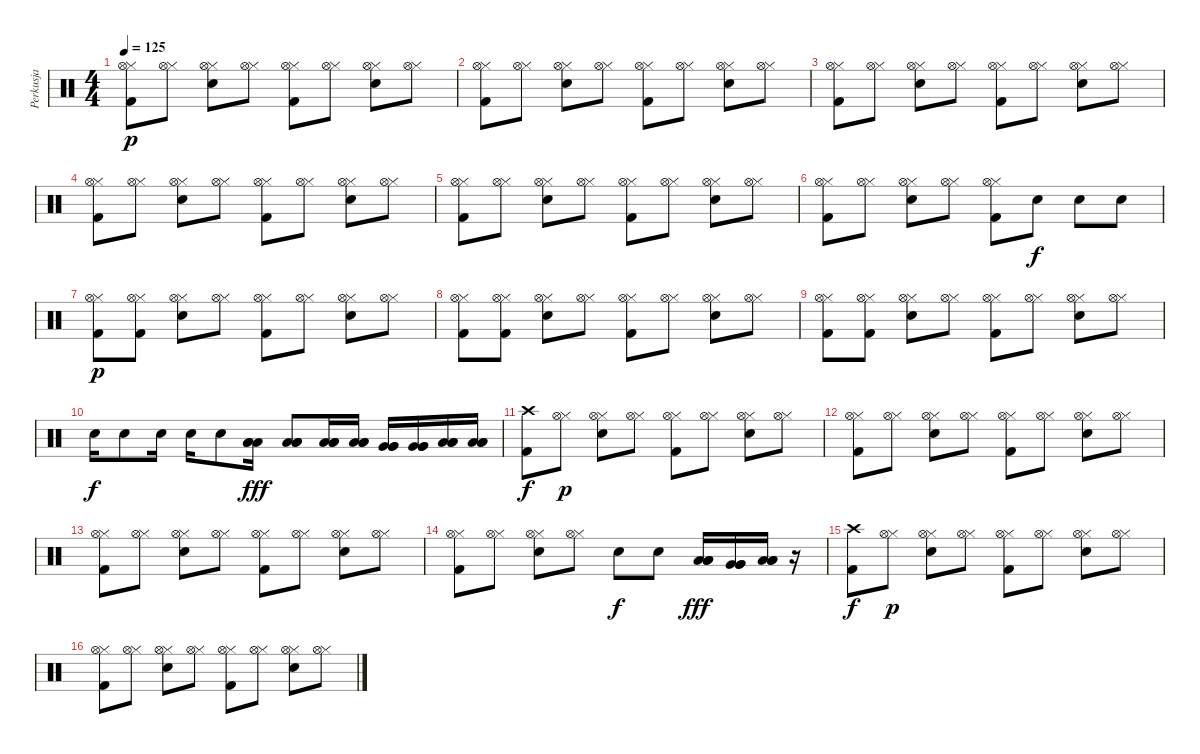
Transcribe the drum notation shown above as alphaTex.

\track ("Perkusja" "Perkusja") {instrument percussion}
\staff {score}
\articulation defaults
\ts (4 4)
\tempo 125
\clef neutral
\ks c
("Kick (hit) 2" "Hi-Hat (closed)" "Hi-Hat (open)").8{dy p} ("Hi-Hat (closed)" "Hi-Hat (open)").8 ("Electric Snare (hit)" "Hi-Hat (closed)" "Hi-Hat (open)").8 ("Hi-Hat (closed)" "Hi-Hat (open)").8 ("Kick (hit) 2" "Hi-Hat (closed)" "Hi-Hat (open)").8 ("Hi-Hat (closed)" "Hi-Hat (open)").8 ("Electric Snare (hit)" "Hi-Hat (closed)" "Hi-Hat (open)").8 ("Hi-Hat (closed)" "Hi-Hat (open)").8 |
("Kick (hit) 2" "Hi-Hat (closed)" "Hi-Hat (open)").8 ("Hi-Hat (closed)" "Hi-Hat (open)").8 ("Electric Snare (hit)" "Hi-Hat (closed)" "Hi-Hat (open)").8 ("Hi-Hat (closed)" "Hi-Hat (open)").8 ("Kick (hit) 2" "Hi-Hat (closed)" "Hi-Hat (open)").8 ("Hi-Hat (closed)" "Hi-Hat (open)").8 ("Electric Snare (hit)" "Hi-Hat (closed)" "Hi-Hat (open)").8 ("Hi-Hat (closed)" "Hi-Hat (open)").8 |
("Kick (hit) 2" "Hi-Hat (closed)" "Hi-Hat (open)").8 ("Hi-Hat (closed)" "Hi-Hat (open)").8 ("Electric Snare (hit)" "Hi-Hat (closed)" "Hi-Hat (open)").8 ("Hi-Hat (closed)" "Hi-Hat (open)").8 ("Kick (hit) 2" "Hi-Hat (closed)" "Hi-Hat (open)").8 ("Hi-Hat (closed)" "Hi-Hat (open)").8 ("Electric Snare (hit)" "Hi-Hat (closed)" "Hi-Hat (open)").8 ("Hi-Hat (closed)" "Hi-Hat (open)").8 |
("Kick (hit) 2" "Hi-Hat (closed)" "Hi-Hat (open)").8 ("Hi-Hat (closed)" "Hi-Hat (open)").8 ("Electric Snare (hit)" "Hi-Hat (closed)" "Hi-Hat (open)").8 ("Hi-Hat (closed)" "Hi-Hat (open)").8 ("Kick (hit) 2" "Hi-Hat (closed)" "Hi-Hat (open)").8 ("Hi-Hat (closed)" "Hi-Hat (open)").8 ("Electric Snare (hit)" "Hi-Hat (closed)" "Hi-Hat (open)").8 ("Hi-Hat (closed)" "Hi-Hat (open)").8 |
("Kick (hit) 2" "Hi-Hat (closed)" "Hi-Hat (open)").8 ("Hi-Hat (closed)" "Hi-Hat (open)").8 ("Electric Snare (hit)" "Hi-Hat (closed)" "Hi-Hat (open)").8 ("Hi-Hat (closed)" "Hi-Hat (open)").8 ("Kick (hit) 2" "Hi-Hat (closed)" "Hi-Hat (open)").8 ("Hi-Hat (closed)" "Hi-Hat (open)").8 ("Electric Snare (hit)" "Hi-Hat (closed)" "Hi-Hat (open)").8 ("Hi-Hat (closed)" "Hi-Hat (open)").8 |
("Kick (hit) 2" "Hi-Hat (closed)" "Hi-Hat (open)").8 ("Hi-Hat (closed)" "Hi-Hat (open)").8 ("Electric Snare (hit)" "Hi-Hat (closed)" "Hi-Hat (open)").8 ("Hi-Hat (closed)" "Hi-Hat (open)").8 ("Kick (hit) 2" "Hi-Hat (closed)" "Hi-Hat (open)").8 "Electric Snare (hit)".8{dy f} "Electric Snare (hit)".8 "Electric Snare (hit)".8 |
("Kick (hit) 2" "Hi-Hat (closed)" "Hi-Hat (open)").8{dy p} ("Kick (hit) 2" "Hi-Hat (closed)" "Hi-Hat (open)").8 ("Electric Snare (hit)" "Hi-Hat (closed)" "Hi-Hat (open)").8 ("Hi-Hat (closed)" "Hi-Hat (open)").8 ("Kick (hit) 2" "Hi-Hat (closed)" "Hi-Hat (open)").8 ("Hi-Hat (closed)" "Hi-Hat (open)").8 ("Electric Snare (hit)" "Hi-Hat (closed)" "Hi-Hat (open)").8 ("Hi-Hat (closed)" "Hi-Hat (open)").8 |
("Kick (hit) 2" "Hi-Hat (closed)" "Hi-Hat (open)").8 ("Kick (hit) 2" "Hi-Hat (closed)" "Hi-Hat (open)").8 ("Electric Snare (hit)" "Hi-Hat (closed)" "Hi-Hat (open)").8 ("Hi-Hat (closed)" "Hi-Hat (open)").8 ("Kick (hit) 2" "Hi-Hat (closed)" "Hi-Hat (open)").8 ("Hi-Hat (closed)" "Hi-Hat (open)").8 ("Electric Snare (hit)" "Hi-Hat (closed)" "Hi-Hat (open)").8 ("Hi-Hat (closed)" "Hi-Hat (open)").8 |
("Kick (hit) 2" "Hi-Hat (closed)" "Hi-Hat (open)").8 ("Kick (hit) 2" "Hi-Hat (closed)" "Hi-Hat (open)").8 ("Electric Snare (hit)" "Hi-Hat (closed)" "Hi-Hat (open)").8 ("Hi-Hat (closed)" "Hi-Hat (open)").8 ("Kick (hit) 2" "Hi-Hat (closed)" "Hi-Hat (open)").8 ("Hi-Hat (closed)" "Hi-Hat (open)").8 ("Electric Snare (hit)" "Hi-Hat (closed)" "Hi-Hat (open)").8 ("Hi-Hat (closed)" "Hi-Hat (open)").8 |
"Electric Snare (hit)".16{dy f} "Electric Snare (hit)".8 "Electric Snare (hit)".16 "Electric Snare (hit)".16 "Electric Snare (hit)".8 ("Low Tom (hit)" "Low Tom (hit)" "Low Tom (hit)").16{dy fff} ("Low Tom (hit)" "Low Tom (hit)" "Low Tom (hit)").8 ("Low Tom (hit)" "Low Tom (hit)" "Low Tom (hit)").16 ("Low Tom (hit)" "Low Tom (hit)" "Low Tom (hit)").16 ("Very Low Tom (hit)" "Very Low Tom (hit)" "Very Low Tom (hit)").16 ("Very Low Tom (hit)" "Very Low Tom (hit)" "Very Low Tom (hit)").16 ("Low Floor Tom (hit)" "Low Floor Tom (hit)" "Low Floor Tom (hit)").16 ("Low Floor Tom (hit)" "Low Floor Tom (hit)" "Low Floor Tom (hit)").16 |
("Kick (hit) 2" "Crash high (hit)").8{dy f} ("Hi-Hat (closed)" "Hi-Hat (open)").8{dy p} ("Electric Snare (hit)" "Hi-Hat (closed)" "Hi-Hat (open)").8 ("Hi-Hat (closed)" "Hi-Hat (open)").8 ("Kick (hit) 2" "Hi-Hat (closed)" "Hi-Hat (open)").8 ("Hi-Hat (closed)" "Hi-Hat (open)").8 ("Electric Snare (hit)" "Hi-Hat (closed)" "Hi-Hat (open)").8 ("Hi-Hat (closed)" "Hi-Hat (open)").8 |
("Kick (hit) 2" "Hi-Hat (closed)" "Hi-Hat (open)").8 ("Hi-Hat (closed)" "Hi-Hat (open)").8 ("Electric Snare (hit)" "Hi-Hat (closed)" "Hi-Hat (open)").8 ("Hi-Hat (closed)" "Hi-Hat (open)").8 ("Kick (hit) 2" "Hi-Hat (closed)" "Hi-Hat (open)").8 ("Hi-Hat (closed)" "Hi-Hat (open)").8 ("Electric Snare (hit)" "Hi-Hat (closed)" "Hi-Hat (open)").8 ("Hi-Hat (closed)" "Hi-Hat (open)").8 |
("Kick (hit) 2" "Hi-Hat (closed)" "Hi-Hat (open)").8 ("Hi-Hat (closed)" "Hi-Hat (open)").8 ("Electric Snare (hit)" "Hi-Hat (closed)" "Hi-Hat (open)").8 ("Hi-Hat (closed)" "Hi-Hat (open)").8 ("Kick (hit) 2" "Hi-Hat (closed)" "Hi-Hat (open)").8 ("Hi-Hat (closed)" "Hi-Hat (open)").8 ("Electric Snare (hit)" "Hi-Hat (closed)" "Hi-Hat (open)").8 ("Hi-Hat (closed)" "Hi-Hat (open)").8 |
("Kick (hit) 2" "Hi-Hat (closed)" "Hi-Hat (open)").8 ("Hi-Hat (closed)" "Hi-Hat (open)").8 ("Electric Snare (hit)" "Hi-Hat (closed)" "Hi-Hat (open)").8 ("Hi-Hat (closed)" "Hi-Hat (open)").8 "Electric Snare (hit)".8{dy f} "Electric Snare (hit)".8 ("Low Tom (hit)" "Low Tom (hit)" "Low Tom (hit)").16{dy fff} ("Very Low Tom (hit)" "Very Low Tom (hit)" "Very Low Tom (hit)").16 ("Low Floor Tom (hit)" "Low Floor Tom (hit)" "Low Floor Tom (hit)").16 r.16 |
("Kick (hit) 2" "Crash high (hit)").8{dy f} ("Hi-Hat (closed)" "Hi-Hat (open)").8{dy p} ("Electric Snare (hit)" "Hi-Hat (closed)" "Hi-Hat (open)").8 ("Hi-Hat (closed)" "Hi-Hat (open)").8 ("Kick (hit) 2" "Hi-Hat (closed)" "Hi-Hat (open)").8 ("Hi-Hat (closed)" "Hi-Hat (open)").8 ("Electric Snare (hit)" "Hi-Hat (closed)" "Hi-Hat (open)").8 ("Hi-Hat (closed)" "Hi-Hat (open)").8 |
("Kick (hit) 2" "Hi-Hat (closed)" "Hi-Hat (open)").8 ("Hi-Hat (closed)" "Hi-Hat (open)").8 ("Electric Snare (hit)" "Hi-Hat (closed)" "Hi-Hat (open)").8 ("Hi-Hat (closed)" "Hi-Hat (open)").8 ("Kick (hit) 2" "Hi-Hat (closed)" "Hi-Hat (open)").8 ("Hi-Hat (closed)" "Hi-Hat (open)").8 ("Electric Snare (hit)" "Hi-Hat (closed)" "Hi-Hat (open)").8 ("Hi-Hat (closed)" "Hi-Hat (open)").8
